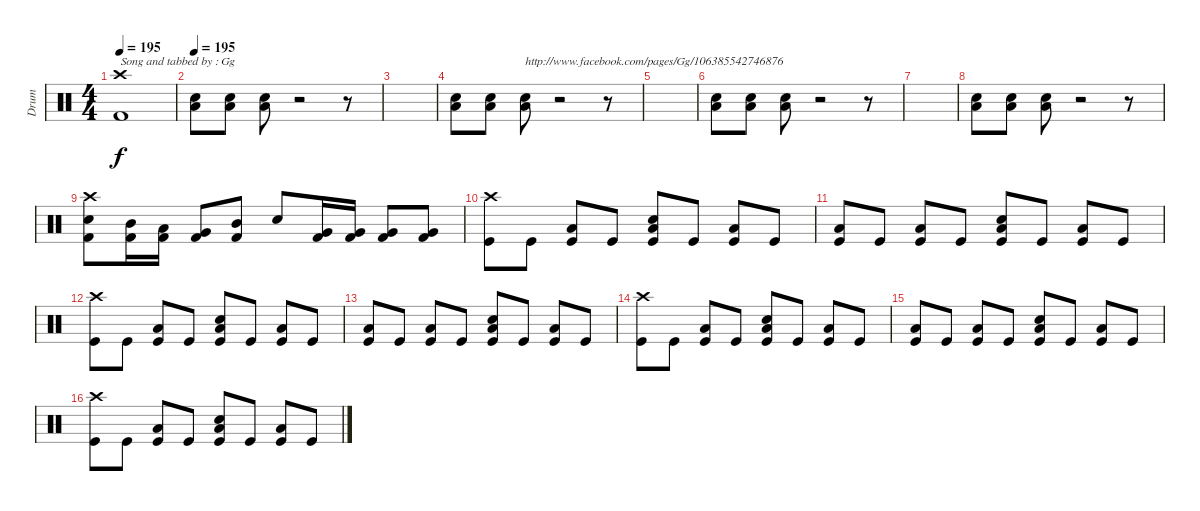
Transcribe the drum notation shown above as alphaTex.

\track ("Drum" "Drum") {instrument percussion}
\staff {score}
\articulation defaults
\ts (4 4)
\tempo 195
\clef neutral
\ks c
("Crash high (hit)" "Kick (hit) 2").1{txt "Song and tabbed by : Gg" dy f} |
\tempo 195
("Electric Snare (hit)" "Low Tom (hit)").8 ("Electric Snare (hit)" "Low Tom (hit)").8 ("Electric Snare (hit)" "Low Tom (hit)").8 r.2 r.8 |
|
("Electric Snare (hit)" "Low Tom (hit)").8 ("Electric Snare (hit)" "Low Tom (hit)").8 ("Electric Snare (hit)" "Low Tom (hit)").8{txt "http://www.facebook.com/pages/Gg/106385542746876"} r.2 r.8 |
|
("Electric Snare (hit)" "Low Tom (hit)").8 ("Electric Snare (hit)" "Low Tom (hit)").8 ("Electric Snare (hit)" "Low Tom (hit)").8 r.2 r.8 |
|
("Electric Snare (hit)" "Low Tom (hit)").8 ("Electric Snare (hit)" "Low Tom (hit)").8 ("Electric Snare (hit)" "Low Tom (hit)").8 r.2 r.8 |
("Electric Snare (hit)" "Crash high (hit)" "Kick (hit) 2").8 ("Mid Tom (hit)" "Kick (hit) 2").16 ("Low Tom (hit)" "Kick (hit) 2").16 ("Very Low Tom (hit)" "Kick (hit) 2").8 ("Mid Tom (hit)" "Kick (hit) 2").8 "Electric Snare (hit)".8 ("Very Low Tom (hit)" "Kick (hit) 2").16 ("Very Low Tom (hit)" "Kick (hit) 2").16 ("Very Low Tom (hit)" "Kick (hit) 2").8 ("Very Low Tom (hit)" "Kick (hit) 2").8 |
("Kick (hit)" "Crash high (hit)").8 "Kick (hit)".8 ("Kick (hit)" "Low Floor Tom (hit)").8 "Kick (hit)".8 ("Electric Snare (hit)" "Kick (hit)" "Low Floor Tom (hit)").8 "Kick (hit)".8 ("Kick (hit)" "Low Floor Tom (hit)").8 "Kick (hit)".8 |
("Kick (hit)" "Low Floor Tom (hit)").8 "Kick (hit)".8 ("Kick (hit)" "Low Floor Tom (hit)").8 "Kick (hit)".8 ("Electric Snare (hit)" "Kick (hit)" "Low Floor Tom (hit)").8 "Kick (hit)".8 ("Kick (hit)" "Low Floor Tom (hit)").8 "Kick (hit)".8 |
("Kick (hit)" "Crash high (hit)").8 "Kick (hit)".8 ("Kick (hit)" "Low Floor Tom (hit)").8 "Kick (hit)".8 ("Electric Snare (hit)" "Kick (hit)" "Low Floor Tom (hit)").8 "Kick (hit)".8 ("Kick (hit)" "Low Floor Tom (hit)").8 "Kick (hit)".8 |
("Kick (hit)" "Low Floor Tom (hit)").8 "Kick (hit)".8 ("Kick (hit)" "Low Floor Tom (hit)").8 "Kick (hit)".8 ("Electric Snare (hit)" "Kick (hit)" "Low Floor Tom (hit)").8 "Kick (hit)".8 ("Kick (hit)" "Low Floor Tom (hit)").8 "Kick (hit)".8 |
("Kick (hit)" "Crash high (hit)").8 "Kick (hit)".8 ("Kick (hit)" "Low Floor Tom (hit)").8 "Kick (hit)".8 ("Electric Snare (hit)" "Kick (hit)" "Low Floor Tom (hit)").8 "Kick (hit)".8 ("Kick (hit)" "Low Floor Tom (hit)").8 "Kick (hit)".8 |
("Kick (hit)" "Low Floor Tom (hit)").8 "Kick (hit)".8 ("Kick (hit)" "Low Floor Tom (hit)").8 "Kick (hit)".8 ("Electric Snare (hit)" "Kick (hit)" "Low Floor Tom (hit)").8 "Kick (hit)".8 ("Kick (hit)" "Low Floor Tom (hit)").8 "Kick (hit)".8 |
("Kick (hit)" "Crash high (hit)").8 "Kick (hit)".8 ("Kick (hit)" "Low Floor Tom (hit)").8 "Kick (hit)".8 ("Electric Snare (hit)" "Kick (hit)" "Low Floor Tom (hit)").8 "Kick (hit)".8 ("Kick (hit)" "Low Floor Tom (hit)").8 "Kick (hit)".8
